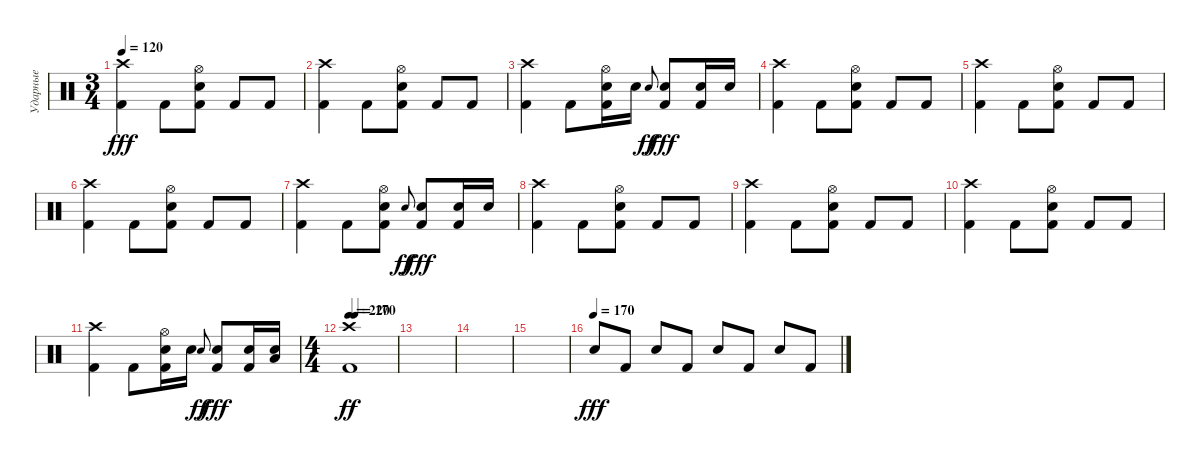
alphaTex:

\track ("Ударные" "Ударные") {instrument percussion}
\staff {score}
\articulation defaults
\ts (3 4)
\tempo 120
\clef neutral
\ks c
("Crash high (hit)" "Kick (hit) 2").4{dy fff} "Kick (hit) 2".8 ("Kick (hit) 2" "Electric Snare (hit)" "Hi-Hat (open)").8 "Kick (hit) 2".8 "Kick (hit) 2".8 |
("Crash high (hit)" "Kick (hit) 2").4 "Kick (hit) 2".8 ("Kick (hit) 2" "Electric Snare (hit)" "Hi-Hat (open)").8 "Kick (hit) 2".8 "Kick (hit) 2".8 |
("Crash high (hit)" "Kick (hit) 2").4 "Kick (hit) 2".8 ("Kick (hit) 2" "Electric Snare (hit)" "Hi-Hat (open)").16 "Electric Snare (hit)".16 "Electric Snare (hit)".8{gr onbeat dy ff} ("Kick (hit) 2" "Electric Snare (hit)").8{dy fff} ("Kick (hit) 2" "Electric Snare (hit)").16 "Electric Snare (hit)".16 |
("Crash high (hit)" "Kick (hit) 2").4 "Kick (hit) 2".8 ("Kick (hit) 2" "Electric Snare (hit)" "Hi-Hat (open)").8 "Kick (hit) 2".8 "Kick (hit) 2".8 |
("Crash high (hit)" "Kick (hit) 2").4 "Kick (hit) 2".8 ("Kick (hit) 2" "Electric Snare (hit)" "Hi-Hat (open)").8 "Kick (hit) 2".8 "Kick (hit) 2".8 |
("Crash high (hit)" "Kick (hit) 2").4 "Kick (hit) 2".8 ("Kick (hit) 2" "Electric Snare (hit)" "Hi-Hat (open)").8 "Kick (hit) 2".8 "Kick (hit) 2".8 |
("Crash high (hit)" "Kick (hit) 2").4 "Kick (hit) 2".8 ("Kick (hit) 2" "Electric Snare (hit)" "Hi-Hat (open)").8 "Electric Snare (hit)".8{gr onbeat dy ff} ("Kick (hit) 2" "Electric Snare (hit)").8{dy fff} ("Kick (hit) 2" "Electric Snare (hit)").16 "Electric Snare (hit)".16 |
("Crash high (hit)" "Kick (hit) 2").4 "Kick (hit) 2".8 ("Kick (hit) 2" "Electric Snare (hit)" "Hi-Hat (open)").8 "Kick (hit) 2".8 "Kick (hit) 2".8 |
("Crash high (hit)" "Kick (hit) 2").4 "Kick (hit) 2".8 ("Kick (hit) 2" "Electric Snare (hit)" "Hi-Hat (open)").8 "Kick (hit) 2".8 "Kick (hit) 2".8 |
("Crash high (hit)" "Kick (hit) 2").4 "Kick (hit) 2".8 ("Kick (hit) 2" "Electric Snare (hit)" "Hi-Hat (open)").8 "Kick (hit) 2".8 "Kick (hit) 2".8 |
("Crash high (hit)" "Kick (hit) 2").4 "Kick (hit) 2".8 ("Kick (hit) 2" "Electric Snare (hit)" "Hi-Hat (open)").16 "Electric Snare (hit)".16 "Electric Snare (hit)".8{gr onbeat dy ff} ("Kick (hit) 2" "Electric Snare (hit)").8{dy fff} ("Kick (hit) 2" "Electric Snare (hit)").16 ("Electric Snare (hit)" "Low Tom (hit)").16 |
\ts (4 4)
\tempo 220
\tempo (170 0.125)
("Crash high (hit)" "Kick (hit) 2").1{dy ff} |
|
|
|
\tempo (170)
"Electric Snare (hit)".8{dy fff} "Kick (hit) 2".8 "Electric Snare (hit)".8 "Kick (hit) 2".8 "Electric Snare (hit)".8 "Kick (hit) 2".8 "Electric Snare (hit)".8 "Kick (hit) 2".8
